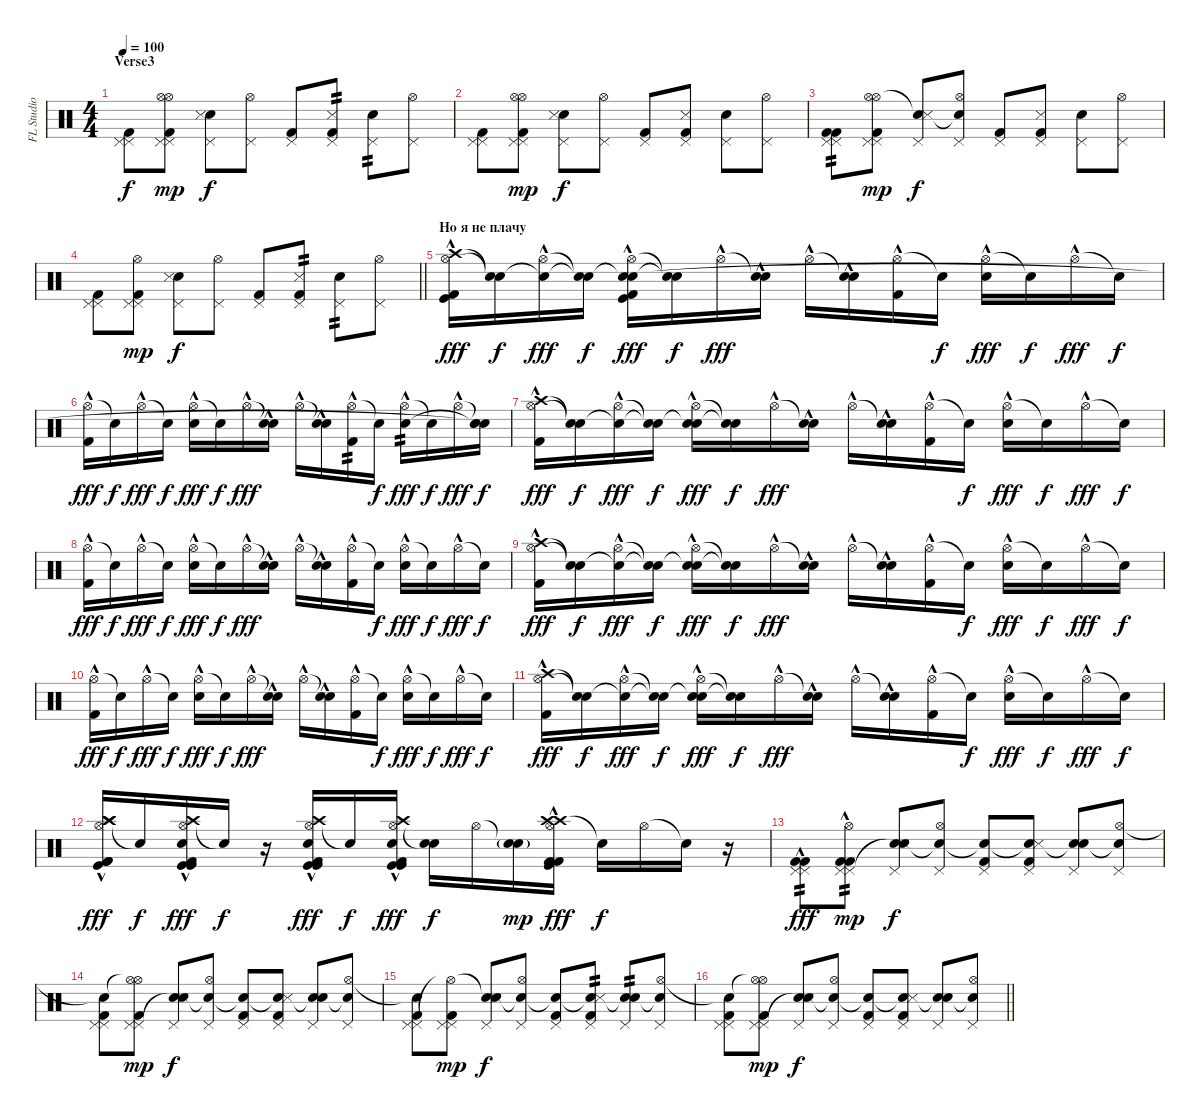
\track ("FL Studio" "FL Studio") {instrument percussion}
\staff {score}
\articulation defaults
\ts (4 4)
\section ("" "Verse3")
\tempo 100
\clef neutral
\ks c
("Pedal Hi-Hat (hit)" "Pedal Hi-Hat (hit)" "Kick (hit) 2").8{dy f} ("Hi-Hat (open)" "Pedal Hi-Hat (hit)" "Hi-Hat (open)" "Pedal Hi-Hat (hit)" "Kick (hit) 2").8{dy mp} ("Pedal Hi-Hat (hit)" "Electric Snare (hit)" "Metronome (hit)").8{dy f} ("Pedal Hi-Hat (hit)" "Hi-Hat (open)").8 ("Pedal Hi-Hat (hit)" "Kick (hit) 2").8 ("Pedal Hi-Hat (hit)" "Kick (hit) 2" "Metronome (hit)").8{tp 2} ("Pedal Hi-Hat (hit)" "Electric Snare (hit)").8{tp 2} ("Pedal Hi-Hat (hit)" "Hi-Hat (open)").8 |
("Pedal Hi-Hat (hit)" "Pedal Hi-Hat (hit)" "Kick (hit) 2").8 ("Hi-Hat (open)" "Pedal Hi-Hat (hit)" "Hi-Hat (open)" "Pedal Hi-Hat (hit)" "Kick (hit) 2").8{dy mp} ("Pedal Hi-Hat (hit)" "Electric Snare (hit)" "Metronome (hit)").8{dy f} ("Pedal Hi-Hat (hit)" "Hi-Hat (open)").8 ("Pedal Hi-Hat (hit)" "Kick (hit) 2").8 ("Pedal Hi-Hat (hit)" "Kick (hit) 2" "Metronome (hit)").8 ("Pedal Hi-Hat (hit)" "Electric Snare (hit)").8 ("Pedal Hi-Hat (hit)" "Hi-Hat (open)").8 |
("Pedal Hi-Hat (hit)" "Pedal Hi-Hat (hit)" "Kick (hit) 2" "Kick (hit) 2").8{tp 2} ("Hi-Hat (open)" "Pedal Hi-Hat (hit)" "Hi-Hat (open)" "Pedal Hi-Hat (hit)" "Kick (hit) 2").8{dy mp} ("Pedal Hi-Hat (hit)" "Electric Snare (hit)" "Metronome (hit)"{t}).8{dy f} ("Pedal Hi-Hat (hit)" "Hi-Hat (open)" "Snare (hit)"{t}).8 ("Pedal Hi-Hat (hit)" "Kick (hit) 2").8 ("Pedal Hi-Hat (hit)" "Kick (hit) 2" "Metronome (hit)").8 ("Pedal Hi-Hat (hit)" "Electric Snare (hit)").8 ("Pedal Hi-Hat (hit)" "Hi-Hat (open)").8 |
\barLineRight lightlight
("Pedal Hi-Hat (hit)" "Pedal Hi-Hat (hit)" "Kick (hit) 2").8 ("Pedal Hi-Hat (hit)" "Hi-Hat (open)" "Pedal Hi-Hat (hit)" "Kick (hit) 2").8{dy mp} ("Pedal Hi-Hat (hit)" "Electric Snare (hit)" "Metronome (hit)").8{dy f} ("Pedal Hi-Hat (hit)" "Hi-Hat (open)").8 ("Pedal Hi-Hat (hit)" "Kick (hit) 2").8 ("Pedal Hi-Hat (hit)" "Kick (hit) 2" "Metronome (hit)").8{tp 2} ("Pedal Hi-Hat (hit)" "Electric Snare (hit)").8{tp 2} ("Pedal Hi-Hat (hit)" "Hi-Hat (open)").8 |
\section ("" "Но я не плачу")
("Crash high (hit)"{hac} "Hi-Hat (open)"{hac} "Kick (hit)"{hac} "Kick (hit) 2"{hac}).16{dy fff} ("Snare (hit)"{t} "Snare (hit)"{t}).16{dy f} ("Snare (hit)"{t} "Hi-Hat (open)"{hac}).16{dy fff} ("Snare (hit)"{t} "Snare (hit)"{t}).16{dy f} ("Snare (hit)"{t} "Hi-Hat (open)"{hac} "Electric Snare (hit)"{hac} "Kick (hit)"{hac} "Kick (hit) 2"{hac}).16{dy fff} ("Snare (hit)"{t} "Snare (hit)"{t}).16{dy f} "Hi-Hat (open)"{hac}.16{dy fff} ("Snare (hit)"{t} "Electric Snare (hit)"{hac}).16 "Hi-Hat (open)"{hac}.16 ("Snare (hit)"{t} "Electric Snare (hit)"{hac}).16 ("Hi-Hat (open)"{hac} "Kick (hit) 2"{hac}).16 "Snare (hit)"{t}.16{dy f} ("Hi-Hat (open)"{hac} "Electric Snare (hit)"{hac}).16{dy fff} "Snare (hit)"{t}.16{dy f} "Hi-Hat (open)"{hac}.16{dy fff} "Snare (hit)"{t}.16{dy f} |
("Hi-Hat (open)"{hac} "Kick (hit) 2"{hac}).16{dy fff} "Snare (hit)"{t}.16{dy f} "Hi-Hat (open)"{hac}.16{dy fff} "Snare (hit)"{t}.16{dy f} ("Hi-Hat (open)"{hac} "Electric Snare (hit)"{hac}).16{dy fff} "Snare (hit)"{t}.16{dy f} "Hi-Hat (open)"{hac}.16{dy fff} ("Snare (hit)"{t} "Electric Snare (hit)"{hac}).16 "Hi-Hat (open)"{hac}.16 ("Snare (hit)"{t} "Electric Snare (hit)"{hac}).16 ("Hi-Hat (open)"{hac} "Kick (hit) 2"{hac}).16{tp 2} "Snare (hit)"{t}.16{dy f} ("Hi-Hat (open)"{hac} "Electric Snare (hit)"{hac}).16{tp 2 dy fff} "Snare (hit)"{t}.16{dy f} "Hi-Hat (open)"{hac}.16{dy fff} ("Snare (hit)"{t} "Snare (hit)"{t} "Snare (hit)"{t}).16{dy f} |
("Crash high (hit)"{hac} "Hi-Hat (open)"{hac} "Kick (hit) 2"{hac}).16{dy fff} ("Snare (hit)"{t} "Snare (hit)"{t}).16{dy f} ("Snare (hit)"{t} "Hi-Hat (open)"{hac}).16{dy fff} ("Snare (hit)"{t} "Snare (hit)"{t}).16{dy f} ("Snare (hit)"{t} "Hi-Hat (open)"{hac} "Electric Snare (hit)"{hac}).16{dy fff} ("Snare (hit)"{t} "Snare (hit)"{t}).16{dy f} "Hi-Hat (open)"{hac}.16{dy fff} ("Snare (hit)"{t} "Electric Snare (hit)"{hac}).16 "Hi-Hat (open)"{hac}.16 ("Snare (hit)"{t} "Electric Snare (hit)"{hac}).16 ("Hi-Hat (open)"{hac} "Kick (hit) 2"{hac}).16 "Snare (hit)"{t}.16{dy f} ("Hi-Hat (open)"{hac} "Electric Snare (hit)"{hac}).16{dy fff} "Snare (hit)"{t}.16{dy f} "Hi-Hat (open)"{hac}.16{dy fff} "Snare (hit)"{t}.16{dy f} |
("Hi-Hat (open)"{hac} "Kick (hit) 2"{hac}).16{dy fff} "Snare (hit)"{t}.16{dy f} "Hi-Hat (open)"{hac}.16{dy fff} "Snare (hit)"{t}.16{dy f} ("Hi-Hat (open)"{hac} "Electric Snare (hit)"{hac}).16{dy fff} "Snare (hit)"{t}.16{dy f} "Hi-Hat (open)"{hac}.16{dy fff} ("Snare (hit)"{t} "Electric Snare (hit)"{hac}).16 "Hi-Hat (open)"{hac}.16 ("Snare (hit)"{t} "Electric Snare (hit)"{hac}).16 ("Hi-Hat (open)"{hac} "Kick (hit) 2"{hac}).16 "Snare (hit)"{t}.16{dy f} ("Hi-Hat (open)"{hac} "Electric Snare (hit)"{hac}).16{dy fff} "Snare (hit)"{t}.16{dy f} "Hi-Hat (open)"{hac}.16{dy fff} "Snare (hit)"{t}.16{dy f} |
("Crash high (hit)"{hac} "Hi-Hat (open)"{hac} "Kick (hit) 2"{hac}).16{dy fff} ("Snare (hit)"{t} "Snare (hit)"{t}).16{dy f} ("Snare (hit)"{t} "Hi-Hat (open)"{hac}).16{dy fff} ("Snare (hit)"{t} "Snare (hit)"{t}).16{dy f} ("Snare (hit)"{t} "Hi-Hat (open)"{hac} "Electric Snare (hit)"{hac}).16{dy fff} ("Snare (hit)"{t} "Snare (hit)"{t}).16{dy f} "Hi-Hat (open)"{hac}.16{dy fff} ("Snare (hit)"{t} "Electric Snare (hit)"{hac}).16 "Hi-Hat (open)"{hac}.16 ("Snare (hit)"{t} "Electric Snare (hit)"{hac}).16 ("Hi-Hat (open)"{hac} "Kick (hit) 2"{hac}).16 "Snare (hit)"{t}.16{dy f} ("Hi-Hat (open)"{hac} "Electric Snare (hit)"{hac}).16{dy fff} "Snare (hit)"{t}.16{dy f} "Hi-Hat (open)"{hac}.16{dy fff} "Snare (hit)"{t}.16{dy f} |
("Hi-Hat (open)"{hac} "Kick (hit) 2"{hac}).16{dy fff} "Snare (hit)"{t}.16{dy f} "Hi-Hat (open)"{hac}.16{dy fff} "Snare (hit)"{t}.16{dy f} ("Hi-Hat (open)"{hac} "Electric Snare (hit)"{hac}).16{dy fff} "Snare (hit)"{t}.16{dy f} "Hi-Hat (open)"{hac}.16{dy fff} ("Snare (hit)"{t} "Electric Snare (hit)"{hac}).16 "Hi-Hat (open)"{hac}.16 ("Snare (hit)"{t} "Electric Snare (hit)"{hac}).16 ("Hi-Hat (open)"{hac} "Kick (hit) 2"{hac}).16 "Snare (hit)"{t}.16{dy f} ("Hi-Hat (open)"{hac} "Electric Snare (hit)"{hac}).16{dy fff} "Snare (hit)"{t}.16{dy f} "Hi-Hat (open)"{hac}.16{dy fff} "Snare (hit)"{t}.16{dy f} |
("Crash high (hit)"{hac} "Hi-Hat (open)"{hac} "Kick (hit) 2"{hac}).16{dy fff} ("Snare (hit)"{t} "Snare (hit)"{t}).16{dy f} ("Snare (hit)"{t} "Hi-Hat (open)"{hac}).16{dy fff} ("Snare (hit)"{t} "Snare (hit)"{t}).16{dy f} ("Snare (hit)"{t} "Hi-Hat (open)"{hac} "Electric Snare (hit)"{hac}).16{dy fff} ("Snare (hit)"{t} "Snare (hit)"{t}).16{dy f} "Hi-Hat (open)"{hac}.16{dy fff} ("Snare (hit)"{t} "Electric Snare (hit)"{hac}).16 "Hi-Hat (open)"{hac}.16 ("Snare (hit)"{t} "Electric Snare (hit)"{hac}).16 ("Hi-Hat (open)"{hac} "Kick (hit) 2"{hac}).16 "Snare (hit)"{t}.16{dy f} ("Hi-Hat (open)"{hac} "Electric Snare (hit)"{hac}).16{dy fff} "Snare (hit)"{t}.16{dy f} "Hi-Hat (open)"{hac}.16{dy fff} "Snare (hit)"{t}.16{dy f} |
("Crash high (hit)"{hac} "Hi-Hat (open)"{hac} "Crash high (hit)"{hac} "Kick (hit) 2"{hac} "Kick (hit)"{hac} "Kick (hit) 2"{hac}).16{dy fff} "Snare (hit)"{t}.16{dy f} ("Crash high (hit)"{hac} "Hi-Hat (open)"{hac} "Kick (hit)"{hac} "Electric Snare (hit)"{hac} "Kick (hit) 2"{hac} "Kick (hit)"{hac}).16{dy fff} "Snare (hit)"{t}.16{dy f} r.16 ("Crash high (hit)"{hac} "Hi-Hat (open)"{hac} "Kick (hit)"{hac} "Electric Snare (hit)"{hac} "Kick (hit) 2"{hac} "Kick (hit)"{hac}).16{dy fff} "Snare (hit)"{t}.16{dy f} ("Crash high (hit)"{hac} "Hi-Hat (open)"{hac} "Kick (hit)"{hac} "Electric Snare (hit)"{hac} "Kick (hit) 2"{hac} "Kick (hit)"{hac}).16{dy fff} ("Snare (hit)"{t} "Electric Snare (hit)").16{dy f} "Hi-Hat (open)".16 ("Snare (hit)"{t} "Electric Snare (hit)"{g}).16{dy mp} ("Crash high (hit)"{hac} "Hi-Hat (open)"{hac} "Crash high (hit)"{hac} "Kick (hit) 2"{hac} "Kick (hit)"{hac} "Kick (hit) 2"{hac}).16{dy fff} "Snare (hit)"{t}.16{dy f} "Hi-Hat (open)".16 "Snare (hit)"{t}.16 r.16 |
("Pedal Hi-Hat (hit)" "Pedal Hi-Hat (hit)" "Kick (hit) 2"{hac} "Kick (hit) 2").8{tp 2 dy fff} ("Hi-Hat (open)" "Pedal Hi-Hat (hit)" "Kick (hit) 2"{hac} "Pedal Hi-Hat (hit)" "Kick (hit) 2").8{tp 2 dy mp} ("Pedal Hi-Hat (hit)" "Snare (hit)"{t} "Electric Snare (hit)" "Metronome (hit)").8{dy f} ("Pedal Hi-Hat (hit)" "Snare (hit)"{t} "Hi-Hat (open)").8 ("Pedal Hi-Hat (hit)" "Snare (hit)"{t} "Kick (hit) 2").8 ("Pedal Hi-Hat (hit)" "Snare (hit)"{t} "Kick (hit) 2" "Metronome (hit)").8 ("Pedal Hi-Hat (hit)" "Snare (hit)"{t} "Electric Snare (hit)").8 ("Pedal Hi-Hat (hit)" "Snare (hit)"{t} "Hi-Hat (open)").8 |
("Pedal Hi-Hat (hit)" "Pedal Hi-Hat (hit)" "Snare (hit)"{t} "Kick (hit) 2").8 ("Hi-Hat (open)" "Pedal Hi-Hat (hit)" "Hi-Hat (open)"{t} "Pedal Hi-Hat (hit)" "Kick (hit) 2").8{dy mp} ("Pedal Hi-Hat (hit)" "Snare (hit)"{t} "Electric Snare (hit)" "Metronome (hit)").8{dy f} ("Pedal Hi-Hat (hit)" "Snare (hit)"{t} "Hi-Hat (open)").8 ("Pedal Hi-Hat (hit)" "Snare (hit)"{t} "Kick (hit) 2").8 ("Pedal Hi-Hat (hit)" "Snare (hit)"{t} "Kick (hit) 2" "Metronome (hit)").8 ("Pedal Hi-Hat (hit)" "Snare (hit)"{t} "Electric Snare (hit)").8 ("Pedal Hi-Hat (hit)" "Snare (hit)"{t} "Hi-Hat (open)").8 |
("Pedal Hi-Hat (hit)" "Pedal Hi-Hat (hit)" "Snare (hit)"{t} "Kick (hit) 2").8 ("Pedal Hi-Hat (hit)" "Hi-Hat (open)"{t} "Pedal Hi-Hat (hit)" "Kick (hit) 2").8{dy mp} ("Pedal Hi-Hat (hit)" "Snare (hit)"{t} "Electric Snare (hit)" "Metronome (hit)").8{dy f} ("Pedal Hi-Hat (hit)" "Snare (hit)"{t} "Hi-Hat (open)").8 ("Pedal Hi-Hat (hit)" "Snare (hit)"{t} "Kick (hit) 2").8 ("Pedal Hi-Hat (hit)" "Snare (hit)"{t} "Kick (hit) 2" "Metronome (hit)").8{tp 2} ("Pedal Hi-Hat (hit)" "Snare (hit)"{t} "Electric Snare (hit)").8{tp 2} ("Pedal Hi-Hat (hit)" "Snare (hit)"{t} "Hi-Hat (open)").8 |
\barLineRight lightlight
("Pedal Hi-Hat (hit)" "Pedal Hi-Hat (hit)" "Snare (hit)"{t} "Kick (hit) 2").8 ("Hi-Hat (open)" "Pedal Hi-Hat (hit)" "Hi-Hat (open)"{t} "Pedal Hi-Hat (hit)" "Kick (hit) 2").8{dy mp} ("Pedal Hi-Hat (hit)" "Snare (hit)"{t} "Electric Snare (hit)" "Metronome (hit)").8{dy f} ("Pedal Hi-Hat (hit)" "Snare (hit)"{t} "Hi-Hat (open)").8 ("Pedal Hi-Hat (hit)" "Snare (hit)"{t} "Kick (hit) 2").8 ("Pedal Hi-Hat (hit)" "Snare (hit)"{t} "Kick (hit) 2" "Metronome (hit)").8 ("Pedal Hi-Hat (hit)" "Snare (hit)"{t} "Electric Snare (hit)").8 ("Pedal Hi-Hat (hit)" "Snare (hit)"{t} "Hi-Hat (open)").8
